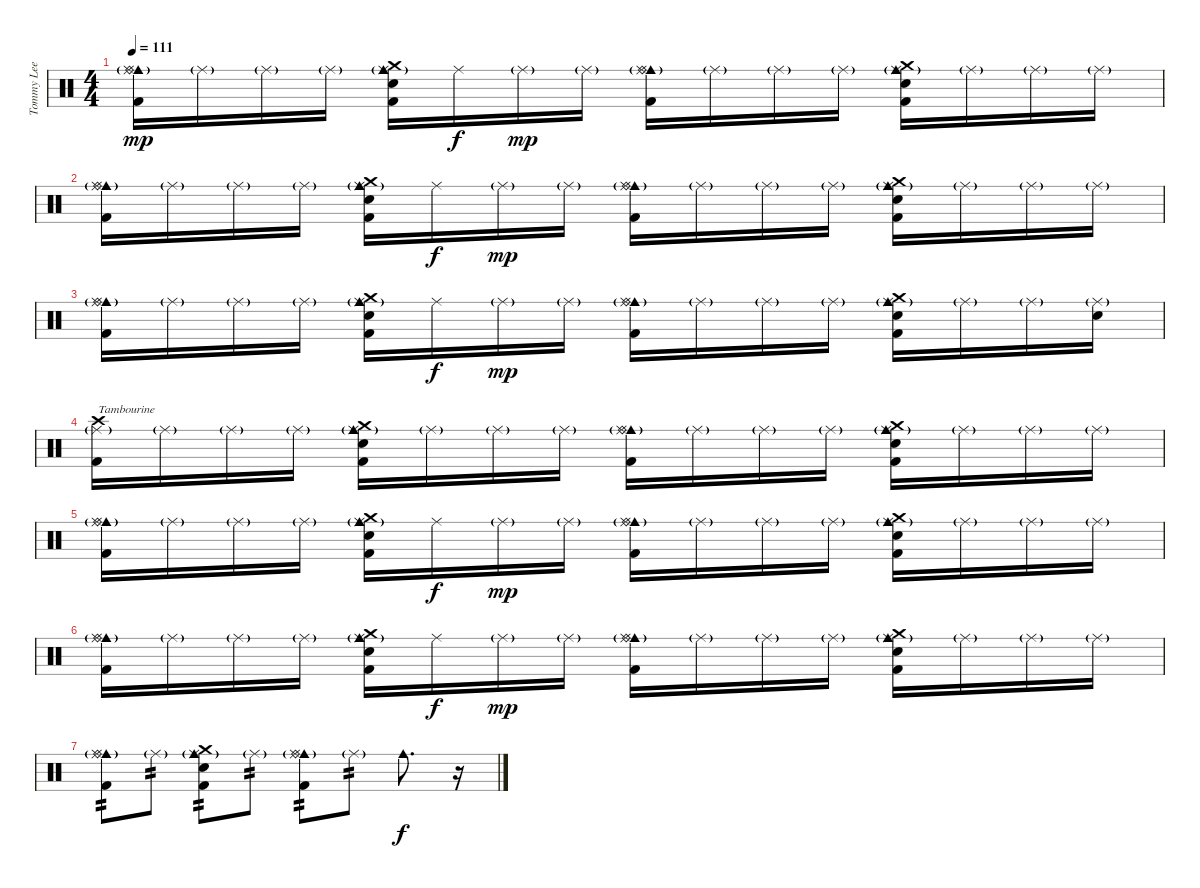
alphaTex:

\track ("Tommy Lee" "Tommy Lee") {instrument percussion}
\staff {score}
\articulation defaults
\ts (4 4)
\tempo 111
\clef neutral
\ks c
("Cowbell medium (hit)" "Ride (bell)" "Ride (middle)"{g} "Kick (hit) 2").16{dy mp} "Ride (middle)"{g}.16 "Ride (middle)"{g}.16 "Ride (middle)"{g}.16 ("Cowbell medium (hit)" "Crash medium (hit)" "Ride (middle)"{g} "Snare (hit) 2" "Kick (hit) 2").16 "Ride (middle)".16{dy f} "Ride (middle)"{g}.16{dy mp} "Ride (middle)"{g}.16 ("Cowbell medium (hit)" "Ride (bell)" "Ride (middle)"{g} "Kick (hit) 2").16 "Ride (middle)"{g}.16 "Ride (middle)"{g}.16 "Ride (middle)"{g}.16 ("Cowbell medium (hit)" "Crash medium (hit)" "Ride (middle)"{g} "Snare (hit) 2" "Kick (hit) 2").16 "Ride (middle)"{g}.16 "Ride (middle)"{g}.16 "Ride (middle)"{g}.16 |
("Cowbell medium (hit)" "Ride (bell)" "Ride (middle)"{g} "Kick (hit) 2").16 "Ride (middle)"{g}.16 "Ride (middle)"{g}.16 "Ride (middle)"{g}.16 ("Cowbell medium (hit)" "Crash medium (hit)" "Ride (middle)"{g} "Snare (hit) 2" "Kick (hit) 2").16 "Ride (middle)".16{dy f} "Ride (middle)"{g}.16{dy mp} "Ride (middle)"{g}.16 ("Cowbell medium (hit)" "Ride (bell)" "Ride (middle)"{g} "Kick (hit) 2").16 "Ride (middle)"{g}.16 "Ride (middle)"{g}.16 "Ride (middle)"{g}.16 ("Cowbell medium (hit)" "Crash medium (hit)" "Ride (middle)"{g} "Snare (hit) 2" "Kick (hit) 2").16 "Ride (middle)"{g}.16 "Ride (middle)"{g}.16 "Ride (middle)"{g}.16 |
("Cowbell medium (hit)" "Ride (bell)" "Ride (middle)"{g} "Kick (hit) 2").16 "Ride (middle)"{g}.16 "Ride (middle)"{g}.16 "Ride (middle)"{g}.16 ("Cowbell medium (hit)" "Crash medium (hit)" "Ride (middle)"{g} "Snare (hit) 2" "Kick (hit) 2").16 "Ride (middle)".16{dy f} "Ride (middle)"{g}.16{dy mp} "Ride (middle)"{g}.16 ("Cowbell medium (hit)" "Ride (bell)" "Ride (middle)"{g} "Kick (hit) 2").16 "Ride (middle)"{g}.16 "Ride (middle)"{g}.16 "Ride (middle)"{g}.16 ("Cowbell medium (hit)" "Crash medium (hit)" "Ride (middle)"{g} "Snare (hit) 2" "Kick (hit) 2").16 "Ride (middle)"{g}.16 "Ride (middle)"{g}.16 ("Ride (middle)"{g} "Snare (hit) 2").16 |
("Crash high (hit)" "Ride (middle)"{g} "Kick (hit) 2").16{txt "Tambourine"} "Ride (middle)"{g}.16 "Ride (middle)"{g}.16 "Ride (middle)"{g}.16 ("Cowbell medium (hit)" "Crash medium (hit)" "Ride (middle)"{g} "Snare (hit) 2" "Kick (hit) 2").16 "Ride (middle)"{g}.16 "Ride (middle)"{g}.16 "Ride (middle)"{g}.16 ("Cowbell medium (hit)" "Ride (bell)" "Ride (middle)"{g} "Kick (hit) 2").16 "Ride (middle)"{g}.16 "Ride (middle)"{g}.16 "Ride (middle)"{g}.16 ("Cowbell medium (hit)" "Crash medium (hit)" "Ride (middle)"{g} "Snare (hit) 2" "Kick (hit) 2").16 "Ride (middle)"{g}.16 "Ride (middle)"{g}.16 "Ride (middle)"{g}.16 |
("Cowbell medium (hit)" "Ride (bell)" "Ride (middle)"{g} "Kick (hit) 2").16 "Ride (middle)"{g}.16 "Ride (middle)"{g}.16 "Ride (middle)"{g}.16 ("Cowbell medium (hit)" "Crash medium (hit)" "Ride (middle)"{g} "Snare (hit) 2" "Kick (hit) 2").16 "Ride (middle)".16{dy f} "Ride (middle)"{g}.16{dy mp} "Ride (middle)"{g}.16 ("Cowbell medium (hit)" "Ride (bell)" "Ride (middle)"{g} "Kick (hit) 2").16 "Ride (middle)"{g}.16 "Ride (middle)"{g}.16 "Ride (middle)"{g}.16 ("Cowbell medium (hit)" "Crash medium (hit)" "Ride (middle)"{g} "Snare (hit) 2" "Kick (hit) 2").16 "Ride (middle)"{g}.16 "Ride (middle)"{g}.16 "Ride (middle)"{g}.16 |
("Cowbell medium (hit)" "Ride (bell)" "Ride (middle)"{g} "Kick (hit) 2").16 "Ride (middle)"{g}.16 "Ride (middle)"{g}.16 "Ride (middle)"{g}.16 ("Cowbell medium (hit)" "Crash medium (hit)" "Ride (middle)"{g} "Snare (hit) 2" "Kick (hit) 2").16 "Ride (middle)".16{dy f} "Ride (middle)"{g}.16{dy mp} "Ride (middle)"{g}.16 ("Cowbell medium (hit)" "Ride (bell)" "Ride (middle)"{g} "Kick (hit) 2").16 "Ride (middle)"{g}.16 "Ride (middle)"{g}.16 "Ride (middle)"{g}.16 ("Cowbell medium (hit)" "Crash medium (hit)" "Ride (middle)"{g} "Snare (hit) 2" "Kick (hit) 2").16 "Ride (middle)"{g}.16 "Ride (middle)"{g}.16 "Ride (middle)"{g}.16 |
("Cowbell medium (hit)" "Ride (bell)" "Ride (middle)"{g} "Kick (hit) 2").8{tp 2} "Ride (middle)"{g}.8{tp 2} ("Cowbell medium (hit)" "Crash medium (hit)" "Ride (middle)"{g} "Snare (hit) 2" "Kick (hit) 2").8{tp 2} "Ride (middle)"{g}.8{tp 2} ("Cowbell medium (hit)" "Ride (bell)" "Ride (middle)"{g} "Kick (hit) 2").8{tp 2} "Ride (middle)"{g}.8{tp 2} "Cowbell medium (hit)".8{d dy f} r.16
